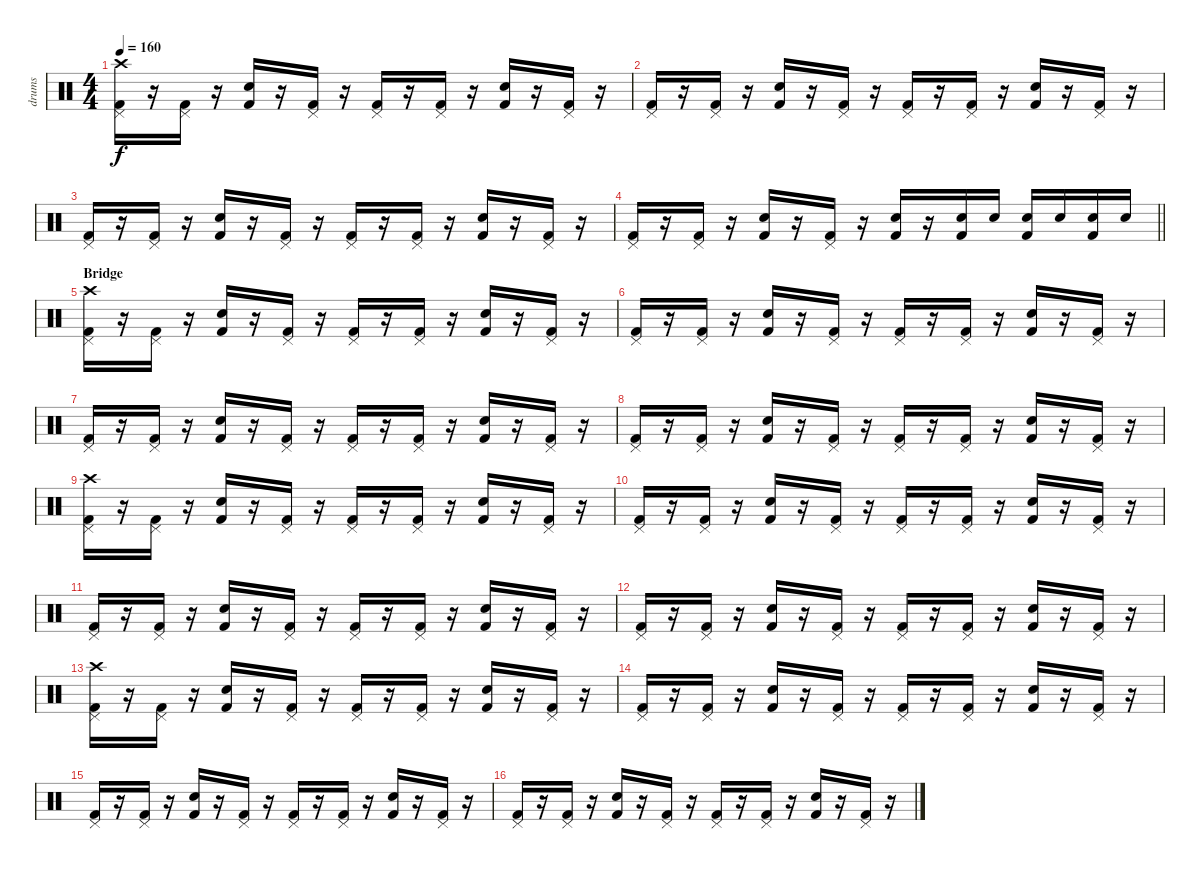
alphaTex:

\track ("drums" "drums") {instrument percussion}
\staff {score}
\articulation defaults
\ts (4 4)
\tempo 160
\clef neutral
\ks c
("Crash high (hit)" "Pedal Hi-Hat (hit)" "Kick (hit) 2").16{dy f} r.16 ("Pedal Hi-Hat (hit)" "Kick (hit) 2").16 r.16 ("Snare (hit) 2" "Kick (hit) 2").16 r.16 ("Pedal Hi-Hat (hit)" "Kick (hit) 2").16 r.16 ("Pedal Hi-Hat (hit)" "Kick (hit) 2").16 r.16 ("Pedal Hi-Hat (hit)" "Kick (hit) 2").16 r.16 ("Snare (hit) 2" "Kick (hit) 2").16 r.16 ("Pedal Hi-Hat (hit)" "Kick (hit) 2").16 r.16 |
("Pedal Hi-Hat (hit)" "Kick (hit) 2").16 r.16 ("Pedal Hi-Hat (hit)" "Kick (hit) 2").16 r.16 ("Snare (hit) 2" "Kick (hit) 2").16 r.16 ("Pedal Hi-Hat (hit)" "Kick (hit) 2").16 r.16 ("Pedal Hi-Hat (hit)" "Kick (hit) 2").16 r.16 ("Pedal Hi-Hat (hit)" "Kick (hit) 2").16 r.16 ("Snare (hit) 2" "Kick (hit) 2").16 r.16 ("Pedal Hi-Hat (hit)" "Kick (hit) 2").16 r.16 |
("Pedal Hi-Hat (hit)" "Kick (hit) 2").16 r.16 ("Pedal Hi-Hat (hit)" "Kick (hit) 2").16 r.16 ("Snare (hit) 2" "Kick (hit) 2").16 r.16 ("Pedal Hi-Hat (hit)" "Kick (hit) 2").16 r.16 ("Pedal Hi-Hat (hit)" "Kick (hit) 2").16 r.16 ("Pedal Hi-Hat (hit)" "Kick (hit) 2").16 r.16 ("Snare (hit) 2" "Kick (hit) 2").16 r.16 ("Pedal Hi-Hat (hit)" "Kick (hit) 2").16 r.16 |
\barLineRight lightlight
("Pedal Hi-Hat (hit)" "Kick (hit) 2").16 r.16 ("Pedal Hi-Hat (hit)" "Kick (hit) 2").16 r.16 ("Snare (hit) 2" "Kick (hit) 2").16 r.16 ("Pedal Hi-Hat (hit)" "Kick (hit) 2").16 r.16 ("Electric Snare (hit)" "Kick (hit) 2").16 r.16 ("Electric Snare (hit)" "Kick (hit) 2").16 "Electric Snare (hit)".16 ("Snare (hit) 2" "Kick (hit) 2").16 "Electric Snare (hit)".16 ("Electric Snare (hit)" "Kick (hit) 2").16 "Electric Snare (hit)".16 |
\section ("" "Bridge")
("Crash high (hit)" "Pedal Hi-Hat (hit)" "Kick (hit) 2").16 r.16 ("Pedal Hi-Hat (hit)" "Kick (hit) 2").16 r.16 ("Snare (hit) 2" "Kick (hit) 2").16 r.16 ("Pedal Hi-Hat (hit)" "Kick (hit) 2").16 r.16 ("Pedal Hi-Hat (hit)" "Kick (hit) 2").16 r.16 ("Pedal Hi-Hat (hit)" "Kick (hit) 2").16 r.16 ("Snare (hit) 2" "Kick (hit) 2").16 r.16 ("Pedal Hi-Hat (hit)" "Kick (hit) 2").16 r.16 |
("Pedal Hi-Hat (hit)" "Kick (hit) 2").16 r.16 ("Pedal Hi-Hat (hit)" "Kick (hit) 2").16 r.16 ("Snare (hit) 2" "Kick (hit) 2").16 r.16 ("Pedal Hi-Hat (hit)" "Kick (hit) 2").16 r.16 ("Pedal Hi-Hat (hit)" "Kick (hit) 2").16 r.16 ("Pedal Hi-Hat (hit)" "Kick (hit) 2").16 r.16 ("Snare (hit) 2" "Kick (hit) 2").16 r.16 ("Pedal Hi-Hat (hit)" "Kick (hit) 2").16 r.16 |
("Pedal Hi-Hat (hit)" "Kick (hit) 2").16 r.16 ("Pedal Hi-Hat (hit)" "Kick (hit) 2").16 r.16 ("Snare (hit) 2" "Kick (hit) 2").16 r.16 ("Pedal Hi-Hat (hit)" "Kick (hit) 2").16 r.16 ("Pedal Hi-Hat (hit)" "Kick (hit) 2").16 r.16 ("Pedal Hi-Hat (hit)" "Kick (hit) 2").16 r.16 ("Snare (hit) 2" "Kick (hit) 2").16 r.16 ("Pedal Hi-Hat (hit)" "Kick (hit) 2").16 r.16 |
("Pedal Hi-Hat (hit)" "Kick (hit) 2").16 r.16 ("Pedal Hi-Hat (hit)" "Kick (hit) 2").16 r.16 ("Snare (hit) 2" "Kick (hit) 2").16 r.16 ("Pedal Hi-Hat (hit)" "Kick (hit) 2").16 r.16 ("Pedal Hi-Hat (hit)" "Kick (hit) 2").16 r.16 ("Pedal Hi-Hat (hit)" "Kick (hit) 2").16 r.16 ("Snare (hit) 2" "Kick (hit) 2").16 r.16 ("Pedal Hi-Hat (hit)" "Kick (hit) 2").16 r.16 |
("Crash high (hit)" "Pedal Hi-Hat (hit)" "Kick (hit) 2").16 r.16 ("Pedal Hi-Hat (hit)" "Kick (hit) 2").16 r.16 ("Snare (hit) 2" "Kick (hit) 2").16 r.16 ("Pedal Hi-Hat (hit)" "Kick (hit) 2").16 r.16 ("Pedal Hi-Hat (hit)" "Kick (hit) 2").16 r.16 ("Pedal Hi-Hat (hit)" "Kick (hit) 2").16 r.16 ("Snare (hit) 2" "Kick (hit) 2").16 r.16 ("Pedal Hi-Hat (hit)" "Kick (hit) 2").16 r.16 |
("Pedal Hi-Hat (hit)" "Kick (hit) 2").16 r.16 ("Pedal Hi-Hat (hit)" "Kick (hit) 2").16 r.16 ("Snare (hit) 2" "Kick (hit) 2").16 r.16 ("Pedal Hi-Hat (hit)" "Kick (hit) 2").16 r.16 ("Pedal Hi-Hat (hit)" "Kick (hit) 2").16 r.16 ("Pedal Hi-Hat (hit)" "Kick (hit) 2").16 r.16 ("Snare (hit) 2" "Kick (hit) 2").16 r.16 ("Pedal Hi-Hat (hit)" "Kick (hit) 2").16 r.16 |
("Pedal Hi-Hat (hit)" "Kick (hit) 2").16 r.16 ("Pedal Hi-Hat (hit)" "Kick (hit) 2").16 r.16 ("Snare (hit) 2" "Kick (hit) 2").16 r.16 ("Pedal Hi-Hat (hit)" "Kick (hit) 2").16 r.16 ("Pedal Hi-Hat (hit)" "Kick (hit) 2").16 r.16 ("Pedal Hi-Hat (hit)" "Kick (hit) 2").16 r.16 ("Snare (hit) 2" "Kick (hit) 2").16 r.16 ("Pedal Hi-Hat (hit)" "Kick (hit) 2").16 r.16 |
("Pedal Hi-Hat (hit)" "Kick (hit) 2").16 r.16 ("Pedal Hi-Hat (hit)" "Kick (hit) 2").16 r.16 ("Snare (hit) 2" "Kick (hit) 2").16 r.16 ("Pedal Hi-Hat (hit)" "Kick (hit) 2").16 r.16 ("Pedal Hi-Hat (hit)" "Kick (hit) 2").16 r.16 ("Pedal Hi-Hat (hit)" "Kick (hit) 2").16 r.16 ("Snare (hit) 2" "Kick (hit) 2").16 r.16 ("Pedal Hi-Hat (hit)" "Kick (hit) 2").16 r.16 |
("Crash high (hit)" "Pedal Hi-Hat (hit)" "Kick (hit) 2").16 r.16 ("Pedal Hi-Hat (hit)" "Kick (hit) 2").16 r.16 ("Snare (hit) 2" "Kick (hit) 2").16 r.16 ("Pedal Hi-Hat (hit)" "Kick (hit) 2").16 r.16 ("Pedal Hi-Hat (hit)" "Kick (hit) 2").16 r.16 ("Pedal Hi-Hat (hit)" "Kick (hit) 2").16 r.16 ("Snare (hit) 2" "Kick (hit) 2").16 r.16 ("Pedal Hi-Hat (hit)" "Kick (hit) 2").16 r.16 |
("Pedal Hi-Hat (hit)" "Kick (hit) 2").16 r.16 ("Pedal Hi-Hat (hit)" "Kick (hit) 2").16 r.16 ("Snare (hit) 2" "Kick (hit) 2").16 r.16 ("Pedal Hi-Hat (hit)" "Kick (hit) 2").16 r.16 ("Pedal Hi-Hat (hit)" "Kick (hit) 2").16 r.16 ("Pedal Hi-Hat (hit)" "Kick (hit) 2").16 r.16 ("Snare (hit) 2" "Kick (hit) 2").16 r.16 ("Pedal Hi-Hat (hit)" "Kick (hit) 2").16 r.16 |
("Pedal Hi-Hat (hit)" "Kick (hit) 2").16 r.16 ("Pedal Hi-Hat (hit)" "Kick (hit) 2").16 r.16 ("Snare (hit) 2" "Kick (hit) 2").16 r.16 ("Pedal Hi-Hat (hit)" "Kick (hit) 2").16 r.16 ("Pedal Hi-Hat (hit)" "Kick (hit) 2").16 r.16 ("Pedal Hi-Hat (hit)" "Kick (hit) 2").16 r.16 ("Snare (hit) 2" "Kick (hit) 2").16 r.16 ("Pedal Hi-Hat (hit)" "Kick (hit) 2").16 r.16 |
("Pedal Hi-Hat (hit)" "Kick (hit) 2").16 r.16 ("Pedal Hi-Hat (hit)" "Kick (hit) 2").16 r.16 ("Snare (hit) 2" "Kick (hit) 2").16 r.16 ("Pedal Hi-Hat (hit)" "Kick (hit) 2").16 r.16 ("Pedal Hi-Hat (hit)" "Kick (hit) 2").16 r.16 ("Pedal Hi-Hat (hit)" "Kick (hit) 2").16 r.16 ("Snare (hit) 2" "Kick (hit) 2").16 r.16 ("Pedal Hi-Hat (hit)" "Kick (hit) 2").16 r.16
